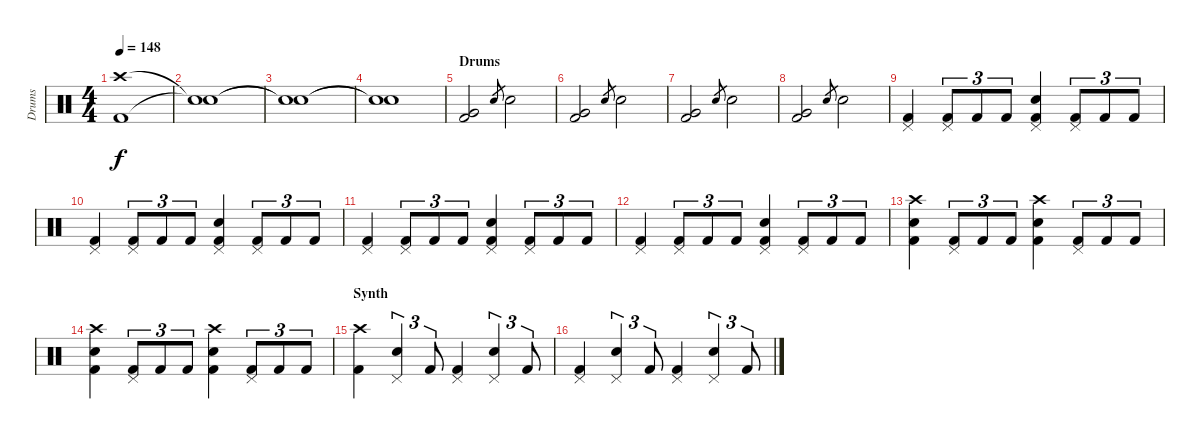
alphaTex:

\track ("Drums" "Drums") {instrument percussion}
\staff {score}
\articulation defaults
\ts (4 4)
\tempo 148
\clef neutral
\ks c
("Crash high (hit)" "Kick (hit) 2").1{dy f} |
("Snare (hit)"{t} "Snare (hit)"{t}).1 |
("Snare (hit)"{t} "Snare (hit)"{t}).1 |
("Snare (hit)"{t} "Snare (hit)"{t}).1 |
\section ("" "Drums")
("Very Low Tom (hit)" "Kick (hit) 2").2 "Snare (hit) 2".8{gr} "Snare (hit) 2".2 |
("Very Low Tom (hit)" "Kick (hit) 2").2 "Snare (hit) 2".8{gr} "Snare (hit) 2".2 |
("Very Low Tom (hit)" "Kick (hit) 2").2 "Snare (hit) 2".8{gr} "Snare (hit) 2".2 |
("Very Low Tom (hit)" "Kick (hit) 2").2 "Snare (hit) 2".8{gr} "Snare (hit) 2".2 |
("Pedal Hi-Hat (hit)" "Kick (hit) 2").4 ("Pedal Hi-Hat (hit)" "Kick (hit) 2").8{tu (3 2)} "Kick (hit) 2".8{tu (3 2)} "Kick (hit) 2".8{tu (3 2)} ("Pedal Hi-Hat (hit)" "Snare (hit) 2" "Kick (hit) 2").4 ("Pedal Hi-Hat (hit)" "Kick (hit) 2").8{tu (3 2)} "Kick (hit) 2".8{tu (3 2)} "Kick (hit) 2".8{tu (3 2)} |
("Pedal Hi-Hat (hit)" "Kick (hit) 2").4 ("Pedal Hi-Hat (hit)" "Kick (hit) 2").8{tu (3 2)} "Kick (hit) 2".8{tu (3 2)} "Kick (hit) 2".8{tu (3 2)} ("Pedal Hi-Hat (hit)" "Snare (hit) 2" "Kick (hit) 2").4 ("Pedal Hi-Hat (hit)" "Kick (hit) 2").8{tu (3 2)} "Kick (hit) 2".8{tu (3 2)} "Kick (hit) 2".8{tu (3 2)} |
("Pedal Hi-Hat (hit)" "Kick (hit) 2").4 ("Pedal Hi-Hat (hit)" "Kick (hit) 2").8{tu (3 2)} "Kick (hit) 2".8{tu (3 2)} "Kick (hit) 2".8{tu (3 2)} ("Pedal Hi-Hat (hit)" "Snare (hit) 2" "Kick (hit) 2").4 ("Pedal Hi-Hat (hit)" "Kick (hit) 2").8{tu (3 2)} "Kick (hit) 2".8{tu (3 2)} "Kick (hit) 2".8{tu (3 2)} |
("Pedal Hi-Hat (hit)" "Kick (hit) 2").4 ("Pedal Hi-Hat (hit)" "Kick (hit) 2").8{tu (3 2)} "Kick (hit) 2".8{tu (3 2)} "Kick (hit) 2".8{tu (3 2)} ("Pedal Hi-Hat (hit)" "Snare (hit) 2" "Kick (hit) 2").4 ("Pedal Hi-Hat (hit)" "Kick (hit) 2").8{tu (3 2)} "Kick (hit) 2".8{tu (3 2)} "Kick (hit) 2".8{tu (3 2)} |
("Crash high (hit)" "Snare (hit) 2" "Kick (hit) 2").4 ("Pedal Hi-Hat (hit)" "Kick (hit) 2").8{tu (3 2)} "Kick (hit) 2".8{tu (3 2)} "Kick (hit) 2".8{tu (3 2)} ("Crash high (hit)" "Snare (hit) 2" "Kick (hit) 2").4 ("Pedal Hi-Hat (hit)" "Kick (hit) 2").8{tu (3 2)} "Kick (hit) 2".8{tu (3 2)} "Kick (hit) 2".8{tu (3 2)} |
("Crash high (hit)" "Snare (hit) 2" "Kick (hit) 2").4 ("Pedal Hi-Hat (hit)" "Kick (hit) 2").8{tu (3 2)} "Kick (hit) 2".8{tu (3 2)} "Kick (hit) 2".8{tu (3 2)} ("Crash high (hit)" "Snare (hit) 2" "Kick (hit) 2").4 ("Pedal Hi-Hat (hit)" "Kick (hit) 2").8{tu (3 2)} "Kick (hit) 2".8{tu (3 2)} "Kick (hit) 2".8{tu (3 2)} |
\section ("" "Synth")
("Crash high (hit)" "Kick (hit) 2").4 ("Pedal Hi-Hat (hit)" "Snare (hit) 2").4{tu (3 2)} "Kick (hit) 2".8{tu (3 2)} ("Pedal Hi-Hat (hit)" "Kick (hit) 2").4 ("Pedal Hi-Hat (hit)" "Snare (hit) 2").4{tu (3 2)} "Kick (hit) 2".8{tu (3 2)} |
("Pedal Hi-Hat (hit)" "Kick (hit) 2").4 ("Pedal Hi-Hat (hit)" "Snare (hit) 2").4{tu (3 2)} "Kick (hit) 2".8{tu (3 2)} ("Pedal Hi-Hat (hit)" "Kick (hit) 2").4 ("Pedal Hi-Hat (hit)" "Snare (hit) 2").4{tu (3 2)} "Kick (hit) 2".8{tu (3 2)}
